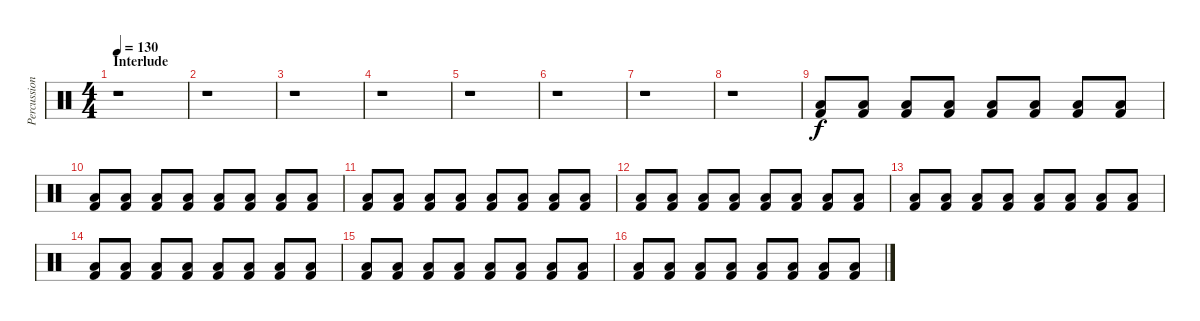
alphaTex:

\track ("Percussions" "Percussion") {instrument percussion}
\staff {score}
\articulation defaults
\ts (4 4)
\section ("" "Interlude")
\tempo 130
\clef neutral
\ks c
r.1{dy f} |
r.1 |
r.1 |
r.1 |
r.1 |
r.1 |
r.1 |
r.1 |
("Kick (hit) 2" "Low Floor Tom (hit)").8 ("Kick (hit) 2" "Low Floor Tom (hit)").8 ("Kick (hit) 2" "Low Floor Tom (hit)").8 ("Kick (hit) 2" "Low Floor Tom (hit)").8 ("Kick (hit) 2" "Low Floor Tom (hit)").8 ("Kick (hit) 2" "Low Floor Tom (hit)").8 ("Kick (hit) 2" "Low Floor Tom (hit)").8 ("Kick (hit) 2" "Low Floor Tom (hit)").8 |
("Kick (hit) 2" "Low Floor Tom (hit)").8 ("Kick (hit) 2" "Low Floor Tom (hit)").8 ("Kick (hit) 2" "Low Floor Tom (hit)").8 ("Kick (hit) 2" "Low Floor Tom (hit)").8 ("Kick (hit) 2" "Low Floor Tom (hit)").8 ("Kick (hit) 2" "Low Floor Tom (hit)").8 ("Kick (hit) 2" "Low Floor Tom (hit)").8 ("Kick (hit) 2" "Low Floor Tom (hit)").8 |
("Kick (hit) 2" "Low Floor Tom (hit)").8 ("Kick (hit) 2" "Low Floor Tom (hit)").8 ("Kick (hit) 2" "Low Floor Tom (hit)").8 ("Kick (hit) 2" "Low Floor Tom (hit)").8 ("Kick (hit) 2" "Low Floor Tom (hit)").8 ("Kick (hit) 2" "Low Floor Tom (hit)").8 ("Kick (hit) 2" "Low Floor Tom (hit)").8 ("Kick (hit) 2" "Low Floor Tom (hit)").8 |
("Kick (hit) 2" "Low Floor Tom (hit)").8 ("Kick (hit) 2" "Low Floor Tom (hit)").8 ("Kick (hit) 2" "Low Floor Tom (hit)").8 ("Kick (hit) 2" "Low Floor Tom (hit)").8 ("Kick (hit) 2" "Low Floor Tom (hit)").8 ("Kick (hit) 2" "Low Floor Tom (hit)").8 ("Kick (hit) 2" "Low Floor Tom (hit)").8 ("Kick (hit) 2" "Low Floor Tom (hit)").8 |
("Kick (hit) 2" "Low Floor Tom (hit)").8 ("Kick (hit) 2" "Low Floor Tom (hit)").8 ("Kick (hit) 2" "Low Floor Tom (hit)").8 ("Kick (hit) 2" "Low Floor Tom (hit)").8 ("Kick (hit) 2" "Low Floor Tom (hit)").8 ("Kick (hit) 2" "Low Floor Tom (hit)").8 ("Kick (hit) 2" "Low Floor Tom (hit)").8 ("Kick (hit) 2" "Low Floor Tom (hit)").8 |
("Kick (hit) 2" "Low Floor Tom (hit)").8 ("Kick (hit) 2" "Low Floor Tom (hit)").8 ("Kick (hit) 2" "Low Floor Tom (hit)").8 ("Kick (hit) 2" "Low Floor Tom (hit)").8 ("Kick (hit) 2" "Low Floor Tom (hit)").8 ("Kick (hit) 2" "Low Floor Tom (hit)").8 ("Kick (hit) 2" "Low Floor Tom (hit)").8 ("Kick (hit) 2" "Low Floor Tom (hit)").8 |
("Kick (hit) 2" "Low Floor Tom (hit)").8 ("Kick (hit) 2" "Low Floor Tom (hit)").8 ("Kick (hit) 2" "Low Floor Tom (hit)").8 ("Kick (hit) 2" "Low Floor Tom (hit)").8 ("Kick (hit) 2" "Low Floor Tom (hit)").8 ("Kick (hit) 2" "Low Floor Tom (hit)").8 ("Kick (hit) 2" "Low Floor Tom (hit)").8 ("Kick (hit) 2" "Low Floor Tom (hit)").8 |
("Kick (hit) 2" "Low Floor Tom (hit)").8 ("Kick (hit) 2" "Low Floor Tom (hit)").8 ("Kick (hit) 2" "Low Floor Tom (hit)").8 ("Kick (hit) 2" "Low Floor Tom (hit)").8 ("Kick (hit) 2" "Low Floor Tom (hit)").8 ("Kick (hit) 2" "Low Floor Tom (hit)").8 ("Kick (hit) 2" "Low Floor Tom (hit)").8 ("Kick (hit) 2" "Low Floor Tom (hit)").8
